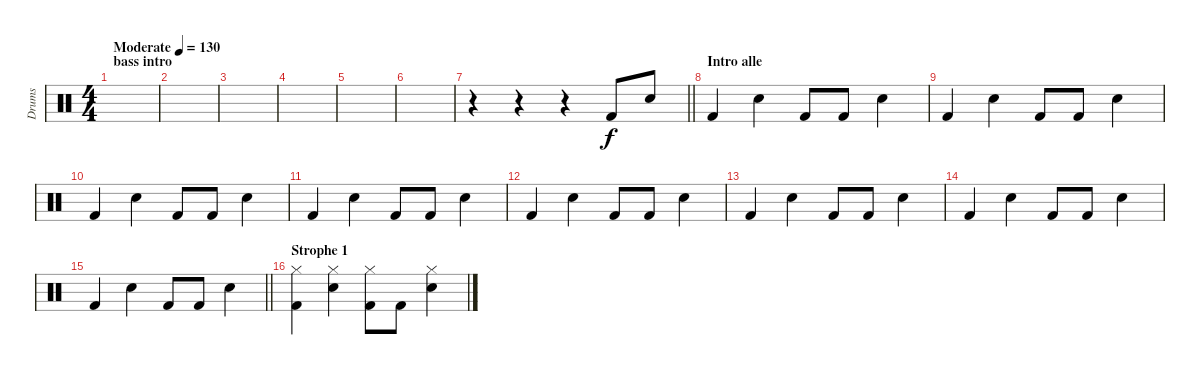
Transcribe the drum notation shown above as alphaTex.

\track ("Drums" "Drums") {instrument percussion}
\staff {score}
\articulation defaults
\ts (4 4)
\section ("" "bass intro")
\tempo (130 "Moderate")
\clef neutral
\ks c
|
|
|
|
|
|
\barLineRight lightlight
r.4 r.4 r.4 "Kick (hit) 2".8 "Snare (hit) 2".8 |
\section ("" "Intro alle")
"Kick (hit) 2".4 "Snare (hit) 2".4 "Kick (hit) 2".8 "Kick (hit) 2".8 "Snare (hit) 2".4 |
"Kick (hit) 2".4 "Snare (hit) 2".4 "Kick (hit) 2".8 "Kick (hit) 2".8 "Snare (hit) 2".4 |
"Kick (hit) 2".4 "Snare (hit) 2".4 "Kick (hit) 2".8 "Kick (hit) 2".8 "Snare (hit) 2".4 |
"Kick (hit) 2".4 "Snare (hit) 2".4 "Kick (hit) 2".8 "Kick (hit) 2".8 "Snare (hit) 2".4 |
"Kick (hit) 2".4 "Snare (hit) 2".4 "Kick (hit) 2".8 "Kick (hit) 2".8 "Snare (hit) 2".4 |
"Kick (hit) 2".4 "Snare (hit) 2".4 "Kick (hit) 2".8 "Kick (hit) 2".8 "Snare (hit) 2".4 |
"Kick (hit) 2".4 "Snare (hit) 2".4 "Kick (hit) 2".8 "Kick (hit) 2".8 "Snare (hit) 2".4 |
\barLineRight lightlight "Kick (hit) 2".4 "Snare (hit) 2".4 "Kick (hit) 2".8 "Kick (hit) 2".8 "Snare (hit) 2".4
|
\section ("" "Strophe 1")
("Hi-Hat (closed)" "Kick (hit) 2").4 ("Hi-Hat (closed)" "Snare (hit) 2").4 ("Hi-Hat (closed)" "Kick (hit) 2").8 "Kick (hit) 2".8 ("Hi-Hat (closed)" "Snare (hit) 2").4
